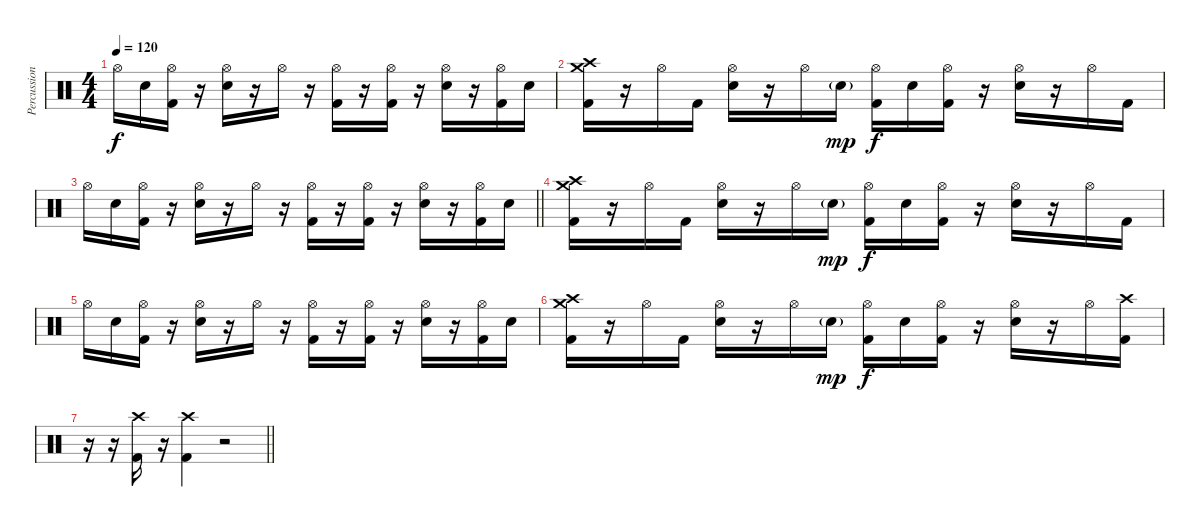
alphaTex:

\track ("Percussion" "Percussion") {instrument percussion}
\staff {score}
\articulation defaults
\ts (4 4)
\tempo 120
\clef neutral
\ks c "Hi-Hat (open)".16{dy f} "Electric Snare (hit)".16
("Hi-Hat (open)" "Kick (hit) 2").16 r.16 ("Hi-Hat (open)" "Electric Snare (hit)").16 r.16 "Hi-Hat (open)".16 r.16 ("Hi-Hat (open)" "Kick (hit) 2").16 r.16 ("Hi-Hat (open)" "Kick (hit) 2").16 r.16 ("Hi-Hat (open)" "Electric Snare (hit)").16 r.16 ("Hi-Hat (open)" "Kick (hit) 2").16 "Electric Snare (hit)".16 |
("Crash medium (hit)" "Crash high (hit)" "Kick (hit) 2").16 r.16 "Hi-Hat (open)".16 "Kick (hit) 2".16 ("Hi-Hat (open)" "Electric Snare (hit)").16 r.16 "Hi-Hat (open)".16 "Electric Snare (hit)"{g}.16{dy mp} ("Hi-Hat (open)" "Kick (hit) 2").16{dy f} "Electric Snare (hit)".16 ("Hi-Hat (open)" "Kick (hit) 2").16 r.16 ("Hi-Hat (open)" "Electric Snare (hit)").16 r.16 "Hi-Hat (open)".16 "Kick (hit) 2".16 |
\barLineRight lightlight "Hi-Hat (open)".16 "Electric Snare (hit)".16
("Hi-Hat (open)" "Kick (hit) 2").16 r.16 ("Hi-Hat (open)" "Electric Snare (hit)").16 r.16 "Hi-Hat (open)".16 r.16 ("Hi-Hat (open)" "Kick (hit) 2").16 r.16 ("Hi-Hat (open)" "Kick (hit) 2").16 r.16 ("Hi-Hat (open)" "Electric Snare (hit)").16 r.16 ("Hi-Hat (open)" "Kick (hit) 2").16 "Electric Snare (hit)".16 |
("Crash medium (hit)" "Crash high (hit)" "Kick (hit) 2").16 r.16 "Hi-Hat (open)".16 "Kick (hit) 2".16 ("Hi-Hat (open)" "Electric Snare (hit)").16 r.16 "Hi-Hat (open)".16 "Electric Snare (hit)"{g}.16{dy mp} ("Hi-Hat (open)" "Kick (hit) 2").16{dy f} "Electric Snare (hit)".16 ("Hi-Hat (open)" "Kick (hit) 2").16 r.16 ("Hi-Hat (open)" "Electric Snare (hit)").16 r.16 "Hi-Hat (open)".16 "Kick (hit) 2".16 |
"Hi-Hat (open)".16 "Electric Snare (hit)".16 ("Hi-Hat (open)" "Kick (hit) 2").16 r.16 ("Hi-Hat (open)" "Electric Snare (hit)").16 r.16 "Hi-Hat (open)".16 r.16 ("Hi-Hat (open)" "Kick (hit) 2").16 r.16 ("Hi-Hat (open)" "Kick (hit) 2").16 r.16 ("Hi-Hat (open)" "Electric Snare (hit)").16 r.16 ("Hi-Hat (open)" "Kick (hit) 2").16 "Electric Snare (hit)".16 |
("Crash medium (hit)" "Crash high (hit)" "Kick (hit) 2").16 r.16 "Hi-Hat (open)".16 "Kick (hit) 2".16 ("Hi-Hat (open)" "Electric Snare (hit)").16 r.16 "Hi-Hat (open)".16 "Electric Snare (hit)"{g}.16{dy mp} ("Hi-Hat (open)" "Kick (hit) 2").16{dy f} "Electric Snare (hit)".16 ("Hi-Hat (open)" "Kick (hit) 2").16 r.16 ("Hi-Hat (open)" "Electric Snare (hit)").16 r.16 "Hi-Hat (open)".16 ("Crash high (hit)" "Kick (hit) 2").16 |
\barLineRight lightlight
r.16 r.16 ("Crash high (hit)" "Kick (hit) 2").16 r.16 ("Crash high (hit)" "Kick (hit) 2").4 r.2
